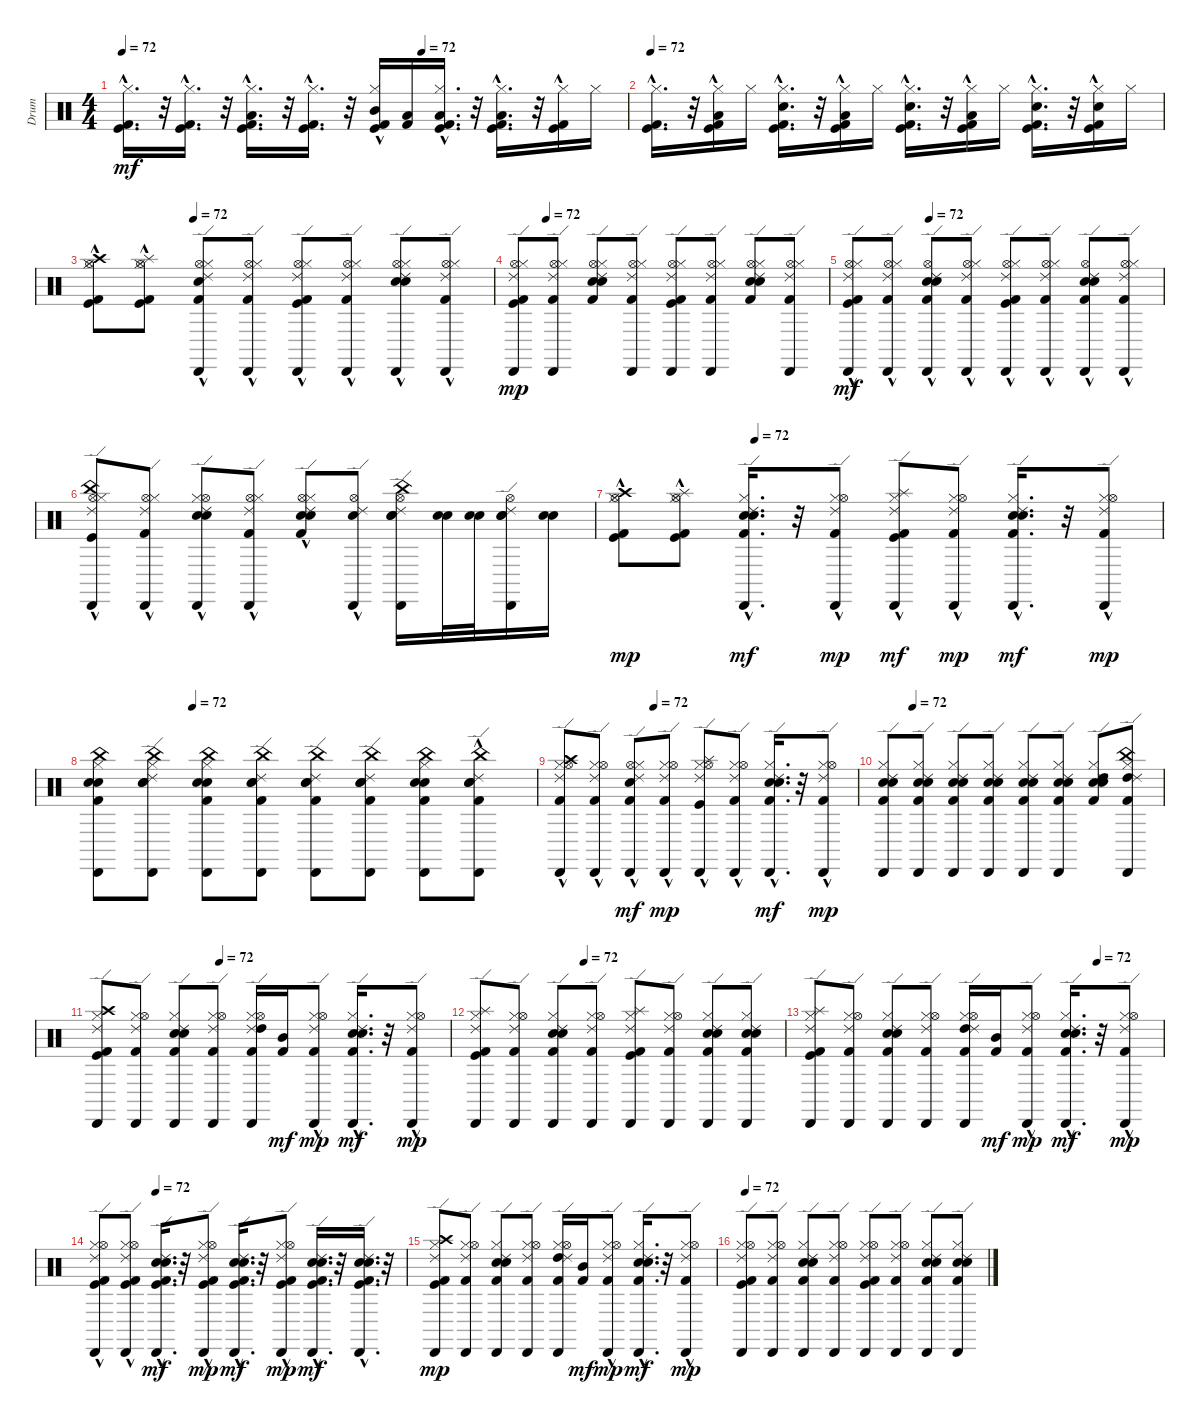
\track ("Drum" "Drum") {instrument percussion}
\staff {score}
\articulation defaults
\ts (4 4)
\tempo 72
\tempo (72 0.59375)
\clef neutral
\ks c
("Kick (hit) 2"{hac} "Kick (hit)"{hac} "Hi-Hat (closed)"{hac}).16{d dy mf} r.32 ("Kick (hit) 2"{hac} "Kick (hit)"{hac} "Hi-Hat (closed)"{hac}).16{d} r.32 ("Low Tom (hit)"{hac} "Kick (hit) 2"{hac} "Kick (hit)"{hac} "Hi-Hat (closed)"{hac}).16{d} r.32 ("Kick (hit) 2"{hac} "Kick (hit)"{hac} "Hi-Hat (closed)"{hac}).16{d} r.32 ("Mid Tom (hit)" "Kick (hit)" "Kick (hit) 2" "Hi-Hat (closed)"{hac}).16 ("Kick (hit) 2" "Low Tom (hit)").16 ("Kick (hit) 2"{hac} "Low Floor Tom (hit)"{hac} "Kick (hit)"{hac} "Hi-Hat (closed)"{hac}).16{d} r.32 ("Low Tom (hit)"{hac} "Kick (hit) 2"{hac} "Kick (hit)"{hac} "Hi-Hat (closed)"{hac}).16{d} r.32 ("Kick (hit) 2"{hac} "Kick (hit)"{hac} "Hi-Hat (closed)").16 "Hi-Hat (closed)".16 |
\tempo 72
("Kick (hit)"{hac} "Kick (hit) 2"{hac} "Hi-Hat (closed)"{hac}).16{d} r.32 ("Low Tom (hit)"{hac} "Kick (hit)"{hac} "Kick (hit) 2"{hac} "Hi-Hat (closed)").16 "Hi-Hat (closed)".16 ("Snare (hit) 2"{hac} "Kick (hit) 2"{hac} "Kick (hit)"{hac} "Hi-Hat (closed)"{hac}).16{d} r.32 ("Low Tom (hit)"{hac} "Kick (hit)"{hac} "Kick (hit) 2"{hac} "Hi-Hat (closed)").16 "Hi-Hat (closed)".16 ("Kick (hit) 2"{hac} "Kick (hit)"{hac} "Hi-Hat (closed)"{hac} "Snare (hit) 2"{hac}).16{d} r.32 ("Kick (hit)"{hac} "Low Tom (hit)"{hac} "Kick (hit) 2"{hac} "Hi-Hat (closed)").16 "Hi-Hat (closed)".16 ("Snare (hit) 2"{hac} "Kick (hit) 2"{hac} "Kick (hit)"{hac} "Hi-Hat (closed)"{hac}).16{d} r.32 ("Kick (hit) 2"{hac} "Snare (hit) 2"{hac} "Kick (hit)"{hac} "Hi-Hat (closed)").16 "Hi-Hat (closed)".16 |
\tempo (72 0.25)
("Hi-Hat (open)" "Kick (hit) 2"{hac} "Kick (hit)"{hac} "Hi-Hat (closed)"{hac} "Crash high (hit)").8 ("Hi-Hat (open)" "Kick (hit) 2"{hac} "Kick (hit)"{hac} "Hi-Hat (closed)"{hac} "Splash (hit)").8 ("Hi-Hat (open)" "Ride (edge) 2"{hac} "Hi-Hat (closed)"{hac} "Cabasa (hit)"{hac} "Kick (hit) 2"{hac} "Snare (hit) 2"{hac}).8 ("Hi-Hat (open)" "Hi-Hat (closed)"{hac} "Cabasa (hit)"{hac} "Ride (edge) 2"{hac} "Kick (hit) 2"{hac}).8 ("Hi-Hat (open)" "Hi-Hat (closed)"{hac} "Kick (hit)"{hac} "Kick (hit) 2"{hac} "Cabasa (hit)"{hac} "Ride (edge) 2"{hac}).8 ("Hi-Hat (open)" "Hi-Hat (closed)"{hac} "Kick (hit) 2"{hac} "Cabasa (hit)"{hac} "Ride (edge) 2"{hac}).8 ("Hi-Hat (open)" "Ride (edge) 2"{hac} "Snare (hit) 2"{hac} "Hi-Hat (closed)"{hac} "Cabasa (hit)"{hac} "Electric Snare (hit)"{hac}).8 ("Hi-Hat (open)" "Hi-Hat (closed)"{hac} "Kick (hit) 2"{hac} "Cabasa (hit)"{hac} "Ride (edge) 2"{hac}).8 |
\tempo (72 0.09375)
("Hi-Hat (open)" "Ride (edge) 2" "Kick (hit)" "Hi-Hat (closed)" "Kick (hit) 2" "Cabasa (hit)").8{dy mp} ("Hi-Hat (open)" "Kick (hit) 2" "Hi-Hat (closed)" "Ride (edge) 2" "Cabasa (hit)").8 ("Hi-Hat (open)" "Ride (edge) 2" "Kick (hit) 2" "Snare (hit) 2" "Electric Snare (hit)" "Hi-Hat (closed)").8 ("Hi-Hat (open)" "Hi-Hat (closed)" "Ride (edge) 2" "Kick (hit) 2" "Cabasa (hit)").8 ("Hi-Hat (open)" "Hi-Hat (closed)" "Ride (edge) 2" "Kick (hit)" "Kick (hit) 2" "Cabasa (hit)").8 ("Hi-Hat (open)" "Hi-Hat (closed)" "Ride (edge) 2" "Kick (hit) 2" "Cabasa (hit)").8 ("Hi-Hat (open)" "Ride (edge) 2" "Snare (hit) 2" "Hi-Hat (closed)" "Electric Snare (hit)" "Kick (hit) 2").8 ("Hi-Hat (open)" "Hi-Hat (closed)" "Ride (edge) 2" "Kick (hit) 2" "Cabasa (hit)").8 |
\tempo (72 0.25)
("Hi-Hat (open)" "Kick (hit)"{hac} "Kick (hit) 2"{hac} "Cabasa (hit)"{hac} "Ride (edge) 2"{hac} "Hi-Hat (closed)"{hac}).8{dy mf} ("Hi-Hat (open)" "Kick (hit) 2"{hac} "Cabasa (hit)"{hac} "Ride (edge) 2"{hac} "Hi-Hat (closed)"{hac}).8 ("Hi-Hat (open)" "Electric Snare (hit)"{hac} "Snare (hit) 2"{hac} "Kick (hit) 2"{hac} "Cabasa (hit)"{hac} "Ride (edge) 2"{hac}).8 ("Hi-Hat (open)" "Kick (hit) 2"{hac} "Cabasa (hit)"{hac} "Ride (edge) 2"{hac} "Hi-Hat (closed)"{hac}).8 ("Hi-Hat (open)" "Kick (hit)"{hac} "Kick (hit) 2"{hac} "Cabasa (hit)"{hac} "Ride (edge) 2"{hac} "Hi-Hat (closed)"{hac}).8 ("Hi-Hat (open)" "Kick (hit) 2"{hac} "Cabasa (hit)"{hac} "Ride (edge) 2"{hac} "Hi-Hat (closed)"{hac}).8 ("Hi-Hat (open)" "Electric Snare (hit)"{hac} "Snare (hit) 2"{hac} "Kick (hit) 2"{hac} "Cabasa (hit)"{hac} "Ride (edge) 2"{hac}).8 ("Hi-Hat (open)" "Kick (hit) 2"{hac} "Cabasa (hit)"{hac} "Ride (edge) 2"{hac} "Hi-Hat (closed)"{hac}).8 |
("China (hit)"{hac} "Hi-Hat (open)" "Hi-Hat (closed)"{hac} "Ride (edge) 2"{hac} "Kick (hit)"{hac} "Cabasa (hit)"{hac}).8 ("Hi-Hat (open)" "Hi-Hat (closed)"{hac} "Ride (edge) 2"{hac} "Kick (hit) 2"{hac} "Cabasa (hit)"{hac}).8 ("Hi-Hat (closed)"{hac} "Hi-Hat (open)" "Electric Snare (hit)"{hac} "Ride (edge) 2"{hac} "Cabasa (hit)"{hac} "Snare (hit) 2"{hac}).8 ("Hi-Hat (open)" "Hi-Hat (closed)"{hac} "Ride (edge) 2"{hac} "Kick (hit) 2"{hac} "Cabasa (hit)"{hac}).8 ("Snare (hit) 2"{hac} "Electric Snare (hit)"{hac} "Hi-Hat (open)" "Hi-Hat (closed)"{hac} "Kick (hit) 2"{hac} "Ride (edge) 2"{hac}).8 ("Snare (hit) 2"{hac} "Ride (edge) 2"{hac} "Hi-Hat (open)" "Cabasa (hit)"{hac}).8 ("China (hit)" "Snare (hit) 2" "Ride (edge) 2" "Hi-Hat (open)" "Cabasa (hit)" "Electric Snare (hit)").16 ("Snare (hit) 2" "Electric Snare (hit)").32 ("Snare (hit) 2" "Electric Snare (hit)").32 ("Snare (hit) 2" "Ride (edge) 2" "Cabasa (hit)" "Hi-Hat (open)" "Electric Snare (hit)").16 ("Snare (hit) 2" "Electric Snare (hit)").16 |
\tempo (72 0.25)
("Crash high (hit)"{hac} "Hi-Hat (closed)"{hac} "Kick (hit)"{hac} "Kick (hit) 2"{hac} "Hi-Hat (open)").8{dy mp} ("Splash (hit)"{hac} "Hi-Hat (closed)"{hac} "Kick (hit)"{hac} "Kick (hit) 2"{hac} "Hi-Hat (open)").8 ("Electric Snare (hit)"{hac} "Snare (hit) 2"{hac} "Kick (hit) 2"{hac} "Cabasa (hit)"{hac} "Hi-Hat (closed)"{hac} "Ride (edge) 2"{hac}).16{d dy mf} r.32 ("Kick (hit) 2"{hac} "Ride (edge) 2"{hac} "Cabasa (hit)"{hac} "Hi-Hat (closed)"{hac} "Hi-Hat (open)").8{dy mp} ("Splash (hit)"{hac} "Ride (edge) 2"{hac} "Cabasa (hit)"{hac} "Kick (hit) 2"{hac} "Kick (hit)" "Hi-Hat (closed)"{hac}).8{dy mf} ("Ride (edge) 2"{hac} "Cabasa (hit)"{hac} "Kick (hit) 2"{hac} "Hi-Hat (closed)"{hac} "Hi-Hat (open)").8{dy mp} ("Kick (hit) 2"{hac} "Electric Snare (hit)"{hac} "Cabasa (hit)"{hac} "Hi-Hat (closed)"{hac} "Snare (hit) 2"{hac} "Ride (edge) 2"{hac}).16{d dy mf} r.32 ("Ride (edge) 2" "Cabasa (hit)"{hac} "Kick (hit) 2"{hac} "Hi-Hat (closed)"{hac} "Hi-Hat (open)").8{dy mp} |
\tempo (72 0.21875)
("China (hit)" "Electric Snare (hit)" "Snare (hit) 2" "Cabasa (hit)" "Kick (hit) 2" "Hi-Hat (closed)").8 ("China (hit)" "Electric Snare (hit)" "Snare (hit) 2" "Cabasa (hit)" "Ride (edge) 2" "Hi-Hat (closed)").8 ("China (hit)" "Cabasa (hit)" "Hi-Hat (closed)" "Electric Snare (hit)" "Snare (hit) 2" "Kick (hit) 2").8 ("China (hit)" "Snare (hit) 2" "Electric Snare (hit)" "Cabasa (hit)" "Kick (hit) 2" "Ride (edge) 2").8 ("China (hit)" "Electric Snare (hit)" "Snare (hit) 2" "Cabasa (hit)" "Kick (hit) 2" "Ride (edge) 2").8 ("China (hit)" "Snare (hit) 2" "Electric Snare (hit)" "Cabasa (hit)" "Kick (hit) 2" "Ride (edge) 2").8 ("China (hit)" "Cabasa (hit)" "Kick (hit) 2" "Electric Snare (hit)" "Hi-Hat (closed)" "Snare (hit) 2").8 ("China (hit)" "Electric Snare (hit)"{hac} "Snare (hit) 2" "Cabasa (hit)" "Kick (hit) 2" "Ride (edge) 2").8 |
\tempo (72 0.3125)
("Kick (hit) 2"{hac} "Hi-Hat (closed)"{hac} "Crash high (hit)"{hac} "Ride (edge) 2"{hac} "Cabasa (hit)"{hac} "Hi-Hat (open)").8 ("Hi-Hat (closed)"{hac} "Ride (edge) 2"{hac} "Cabasa (hit)"{hac} "Kick (hit) 2"{hac} "Hi-Hat (open)").8 ("Hi-Hat (open)" "Snare (hit) 2"{hac} "Hi-Hat (closed)"{hac} "Kick (hit) 2"{hac} "Cabasa (hit)"{hac} "Ride (edge) 2"{hac}).8{dy mf} ("Hi-Hat (closed)"{hac} "Cabasa (hit)"{hac} "Kick (hit) 2"{hac} "Ride (edge) 2"{hac} "Hi-Hat (open)").8{dy mp} ("Splash (hit)"{hac} "Cabasa (hit)"{hac} "Kick (hit)"{hac} "Ride (edge) 2"{hac} "Hi-Hat (closed)"{hac} "Hi-Hat (open)").8 ("Hi-Hat (closed)"{hac} "Ride (edge) 2"{hac} "Cabasa (hit)"{hac} "Kick (hit) 2"{hac} "Hi-Hat (open)").8 ("Hi-Hat (closed)"{hac} "Kick (hit) 2"{hac} "Snare (hit) 2"{hac} "Cabasa (hit)"{hac} "Electric Snare (hit)"{hac} "Ride (edge) 2"{hac}).16{d dy mf} r.32 ("Cabasa (hit)"{hac} "Kick (hit) 2"{hac} "Hi-Hat (closed)"{hac} "Ride (edge) 2"{hac} "Hi-Hat (open)").8{dy mp} |
\tempo (72 0.09375)
("Ride (edge) 2" "Hi-Hat (closed)" "Kick (hit) 2" "Cabasa (hit)" "Snare (hit) 2" "Electric Snare (hit)").8 ("Kick (hit) 2" "Hi-Hat (closed)" "Ride (edge) 2" "Cabasa (hit)" "Snare (hit) 2" "Electric Snare (hit)").8 ("Ride (edge) 2" "Kick (hit) 2" "Snare (hit) 2" "Electric Snare (hit)" "Hi-Hat (closed)" "Cabasa (hit)").8 ("Hi-Hat (closed)" "Ride (edge) 2" "Kick (hit) 2" "Cabasa (hit)" "Electric Snare (hit)" "Snare (hit) 2").8 ("Hi-Hat (closed)" "Ride (edge) 2" "Kick (hit) 2" "Cabasa (hit)" "Snare (hit) 2" "Electric Snare (hit)").8 ("Hi-Hat (closed)" "Ride (edge) 2" "Kick (hit) 2" "Cabasa (hit)" "Electric Snare (hit)" "Snare (hit) 2").8 ("High Tom (hit)" "Ride (edge) 2" "Snare (hit) 2" "Hi-Hat (closed)" "Electric Snare (hit)" "Kick (hit) 2").8 ("High Tom (hit)" "China (hit)" "Hi-Hat (closed)" "Ride (edge) 2" "Kick (hit) 2" "Cabasa (hit)").8 |
\tempo (72 0.34375)
("Crash high (hit)" "Kick (hit)" "Ride (edge) 2" "Cabasa (hit)" "Kick (hit) 2" "Hi-Hat (closed)").8 ("Kick (hit) 2" "Ride (edge) 2" "Cabasa (hit)" "Hi-Hat (closed)" "Hi-Hat (open)").8 ("Cabasa (hit)" "Ride (edge) 2" "Electric Snare (hit)" "Kick (hit) 2" "Snare (hit) 2" "Hi-Hat (closed)").8 ("Hi-Hat (closed)" "Cabasa (hit)" "Ride (edge) 2" "Kick (hit) 2" "Hi-Hat (open)").8 ("Ride (edge) 2" "Cabasa (hit)" "High Tom (hit)" "Kick (hit) 2" "Hi-Hat (closed)" "Hi-Hat (open)").16 ("Mid Tom (hit)" "Kick (hit) 2").16{dy mf} ("Cabasa (hit)"{hac} "Hi-Hat (closed)"{hac} "Kick (hit) 2"{hac} "Ride (edge) 2"{hac} "Hi-Hat (open)").8{dy mp} ("Snare (hit) 2"{hac} "Cabasa (hit)"{hac} "Kick (hit) 2"{hac} "Ride (edge) 2"{hac} "Hi-Hat (closed)"{hac} "Electric Snare (hit)"{hac}).16{d dy mf} r.32 ("Cabasa (hit)"{hac} "Hi-Hat (closed)"{hac} "Kick (hit) 2"{hac} "Ride (edge) 2"{hac} "Hi-Hat (open)").8{dy mp} |
\tempo (72 0.34375)
("Cabasa (hit)" "Kick (hit) 2" "Hi-Hat (closed)" "Kick (hit)" "Ride (edge) 2" "Splash (hit)").8 ("Cabasa (hit)" "Ride (edge) 2" "Hi-Hat (closed)" "Kick (hit) 2" "Hi-Hat (open)").8 ("Cabasa (hit)" "Hi-Hat (closed)" "Electric Snare (hit)" "Snare (hit) 2" "Kick (hit) 2" "Ride (edge) 2").8 ("Cabasa (hit)" "Kick (hit) 2" "Ride (edge) 2" "Hi-Hat (closed)" "Hi-Hat (open)").8 ("Cabasa (hit)" "Kick (hit) 2" "Kick (hit)" "Ride (edge) 2" "Hi-Hat (closed)" "Splash (hit)").8 ("Cabasa (hit)" "Kick (hit) 2" "Ride (edge) 2" "Hi-Hat (closed)" "Hi-Hat (open)").8 ("Cabasa (hit)" "Kick (hit) 2" "Electric Snare (hit)" "Hi-Hat (closed)" "Snare (hit) 2" "Ride (edge) 2").8 ("Cabasa (hit)" "Kick (hit) 2" "Ride (edge) 2" "Hi-Hat (closed)" "Electric Snare (hit)" "Snare (hit) 2").8 |
\tempo (72 0.8125)
("Ride (edge) 2" "Kick (hit)" "Hi-Hat (closed)" "Kick (hit) 2" "Cabasa (hit)" "Splash (hit)").8 ("Kick (hit) 2" "Hi-Hat (closed)" "Ride (edge) 2" "Cabasa (hit)" "Hi-Hat (open)").8 ("Ride (edge) 2" "Kick (hit) 2" "Snare (hit) 2" "Electric Snare (hit)" "Hi-Hat (closed)" "Cabasa (hit)").8 ("Hi-Hat (closed)" "Ride (edge) 2" "Kick (hit) 2" "Cabasa (hit)" "Hi-Hat (open)").8 ("Cabasa (hit)" "High Tom (hit)" "Kick (hit) 2" "Ride (edge) 2" "Hi-Hat (closed)" "Hi-Hat (open)").16 ("Mid Tom (hit)" "Kick (hit) 2").16{dy mf} ("Cabasa (hit)"{hac} "Ride (edge) 2"{hac} "Hi-Hat (closed)"{hac} "Kick (hit) 2"{hac} "Hi-Hat (open)").8{dy mp} ("Cabasa (hit)"{hac} "Ride (edge) 2"{hac} "Hi-Hat (closed)"{hac} "Kick (hit) 2"{hac} "Electric Snare (hit)"{hac} "Snare (hit) 2"{hac}).16{d dy mf} r.32 ("Cabasa (hit)"{hac} "Ride (edge) 2"{hac} "Hi-Hat (closed)"{hac} "Kick (hit) 2"{hac} "Hi-Hat (open)").8{dy mp} |
\tempo (72 0.1875)
("Kick (hit) 2"{hac} "Kick (hit)"{hac} "Ride (edge) 2"{hac} "Cabasa (hit)"{hac} "Hi-Hat (closed)"{hac} "Hi-Hat (open)").8 ("Kick (hit) 2"{hac} "Kick (hit)"{hac} "Ride (edge) 2"{hac} "Cabasa (hit)"{hac} "Hi-Hat (closed)"{hac} "Hi-Hat (open)").8 ("Snare (hit) 2"{hac} "Electric Snare (hit)"{hac} "Kick (hit)"{hac} "Kick (hit) 2"{hac} "Ride (edge) 2"{hac} "Cabasa (hit)"{hac}).16{d dy mf} r.32 ("Hi-Hat (closed)"{hac} "Kick (hit)"{hac} "Kick (hit) 2"{hac} "Ride (edge) 2"{hac} "Cabasa (hit)"{hac} "Hi-Hat (open)").8{dy mp} ("Snare (hit) 2"{hac} "Electric Snare (hit)"{hac} "Kick (hit)"{hac} "Kick (hit) 2"{hac} "Ride (edge) 2"{hac} "Cabasa (hit)"{hac}).16{d dy mf} r.32 ("Kick (hit)"{hac} "Kick (hit) 2"{hac} "Ride (edge) 2"{hac} "Cabasa (hit)"{hac} "Hi-Hat (closed)" "Hi-Hat (open)").8{dy mp} ("Kick (hit)"{hac} "Kick (hit) 2"{hac} "Ride (edge) 2"{hac} "Electric Snare (hit)"{hac} "Snare (hit) 2"{hac} "Cabasa (hit)"{hac}).16{d dy mf} r.32 ("Kick (hit)"{hac} "Kick (hit) 2"{hac} "Ride (edge) 2"{hac} "Electric Snare (hit)"{hac} "Snare (hit) 2"{hac} "Cabasa (hit)"{hac}).16{d} r.32 |
("Hi-Hat (closed)" "Kick (hit) 2" "Cabasa (hit)" "Ride (edge) 2" "Kick (hit)" "Crash high (hit)").8{dy mp} ("Hi-Hat (closed)" "Cabasa (hit)" "Ride (edge) 2" "Kick (hit) 2" "Hi-Hat (open)").8 ("Hi-Hat (closed)" "Snare (hit) 2" "Kick (hit) 2" "Electric Snare (hit)" "Ride (edge) 2" "Cabasa (hit)").8 ("Kick (hit) 2" "Ride (edge) 2" "Cabasa (hit)" "Hi-Hat (closed)" "Hi-Hat (open)").8 ("Hi-Hat (closed)" "Kick (hit) 2" "High Tom (hit)" "Cabasa (hit)" "Ride (edge) 2" "Hi-Hat (open)").16 ("Kick (hit) 2" "Mid Tom (hit)").16{dy mf} ("Ride (edge) 2"{hac} "Kick (hit) 2"{hac} "Hi-Hat (closed)"{hac} "Cabasa (hit)"{hac} "Hi-Hat (open)").8{dy mp} ("Electric Snare (hit)"{hac} "Hi-Hat (closed)"{hac} "Ride (edge) 2"{hac} "Kick (hit) 2"{hac} "Cabasa (hit)"{hac} "Snare (hit) 2"{hac}).16{d dy mf} r.32 ("Ride (edge) 2"{hac} "Kick (hit) 2"{hac} "Hi-Hat (closed)"{hac} "Cabasa (hit)"{hac} "Hi-Hat (open)").8{dy mp} |
\tempo 72
("Ride (edge) 2" "Kick (hit)" "Hi-Hat (closed)" "Kick (hit) 2" "Cabasa (hit)" "Hi-Hat (open)").8 ("Kick (hit) 2" "Hi-Hat (closed)" "Ride (edge) 2" "Cabasa (hit)" "Hi-Hat (open)").8 ("Ride (edge) 2" "Kick (hit) 2" "Snare (hit) 2" "Electric Snare (hit)" "Hi-Hat (closed)" "Cabasa (hit)").8 ("Hi-Hat (closed)" "Ride (edge) 2" "Kick (hit) 2" "Cabasa (hit)" "Hi-Hat (open)").8 ("Hi-Hat (closed)" "Ride (edge) 2" "Kick (hit)" "Kick (hit) 2" "Cabasa (hit)" "Hi-Hat (open)").8 ("Hi-Hat (closed)" "Ride (edge) 2" "Kick (hit) 2" "Cabasa (hit)" "Hi-Hat (open)").8 ("Ride (edge) 2" "Snare (hit) 2" "Hi-Hat (closed)" "Electric Snare (hit)" "Kick (hit) 2" "Cabasa (hit)").8 ("Snare (hit) 2" "Electric Snare (hit)" "Hi-Hat (closed)" "Ride (edge) 2" "Kick (hit) 2" "Cabasa (hit)").8
